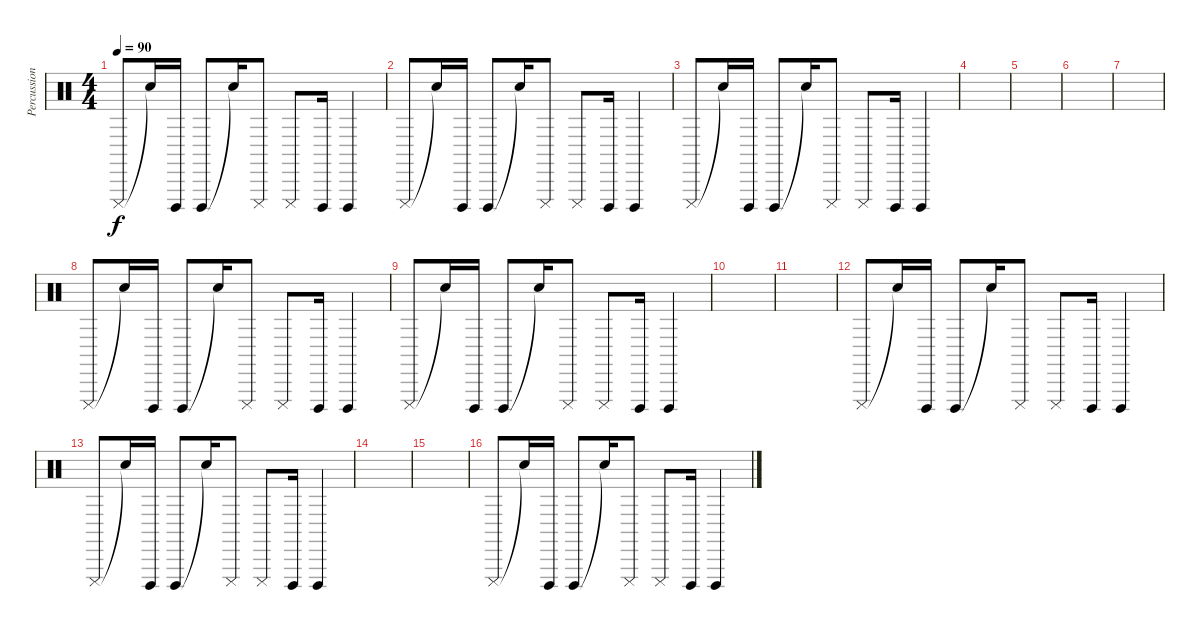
\track ("Percussions" "Percussion") {instrument percussion}
\staff {score}
\articulation defaults
\ts (4 4)
\tempo 90
\clef neutral
\ks c "Cuica (mute)".8{dy f} "Snare (hit)"{t}.16 "Cuica (open)".16 "Cuica (open)".8 "Snare (hit)"{t}.16 "Cuica (mute)".8 "Cuica (mute)".8 "Cuica (open)".16 "Cuica (open)".4
|
"Cuica (mute)".8 "Snare (hit)"{t}.16 "Cuica (open)".16 "Cuica (open)".8 "Snare (hit)"{t}.16 "Cuica (mute)".8 "Cuica (mute)".8 "Cuica (open)".16 "Cuica (open)".4 |
"Cuica (mute)".8 "Snare (hit)"{t}.16 "Cuica (open)".16 "Cuica (open)".8 "Snare (hit)"{t}.16 "Cuica (mute)".8 "Cuica (mute)".8 "Cuica (open)".16 "Cuica (open)".4 |
|
|
|
|
"Cuica (mute)".8 "Snare (hit)"{t}.16 "Cuica (open)".16 "Cuica (open)".8 "Snare (hit)"{t}.16 "Cuica (mute)".8 "Cuica (mute)".8 "Cuica (open)".16 "Cuica (open)".4 |
"Cuica (mute)".8 "Snare (hit)"{t}.16 "Cuica (open)".16 "Cuica (open)".8 "Snare (hit)"{t}.16 "Cuica (mute)".8 "Cuica (mute)".8 "Cuica (open)".16 "Cuica (open)".4 |
|
|
"Cuica (mute)".8 "Snare (hit)"{t}.16 "Cuica (open)".16 "Cuica (open)".8 "Snare (hit)"{t}.16 "Cuica (mute)".8 "Cuica (mute)".8 "Cuica (open)".16 "Cuica (open)".4 |
"Cuica (mute)".8 "Snare (hit)"{t}.16 "Cuica (open)".16 "Cuica (open)".8 "Snare (hit)"{t}.16 "Cuica (mute)".8 "Cuica (mute)".8 "Cuica (open)".16 "Cuica (open)".4 |
|
|
"Cuica (mute)".8 "Snare (hit)"{t}.16 "Cuica (open)".16 "Cuica (open)".8 "Snare (hit)"{t}.16 "Cuica (mute)".8 "Cuica (mute)".8 "Cuica (open)".16 "Cuica (open)".4
